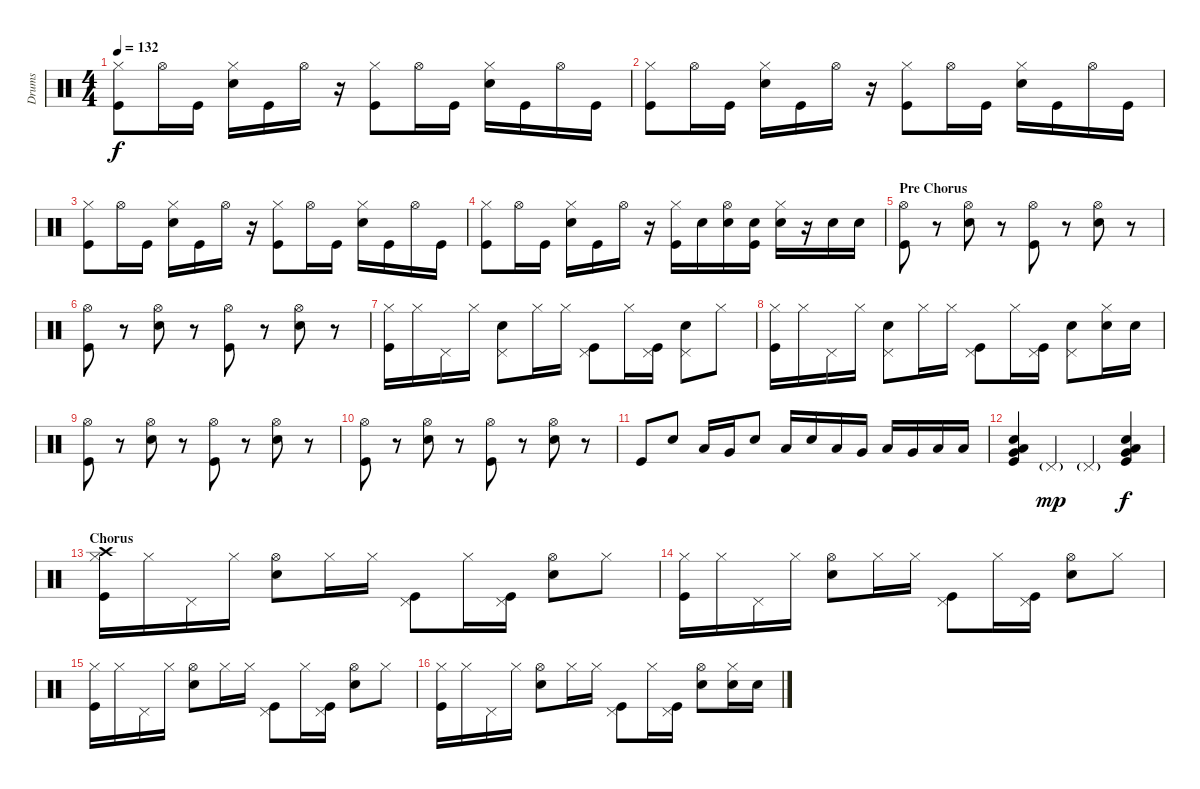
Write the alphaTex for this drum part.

\track ("Drums" "Drums") {instrument percussion}
\staff {score}
\articulation defaults
\ts (4 4)
\tempo 132
\clef neutral
\ks c
("Hi-Hat (closed)" "Kick (hit)").8{dy f} "Hi-Hat (open)".16 "Kick (hit)".16 ("Hi-Hat (closed)" "Snare (hit) 2").16 "Kick (hit)".16 "Hi-Hat (open)".16 r.16 ("Hi-Hat (closed)" "Kick (hit)").8 "Hi-Hat (open)".16 "Kick (hit)".16 ("Hi-Hat (closed)" "Snare (hit) 2").16 "Kick (hit)".16 "Hi-Hat (open)".16 "Kick (hit)".16 |
("Hi-Hat (closed)" "Kick (hit)").8 "Hi-Hat (open)".16 "Kick (hit)".16 ("Hi-Hat (closed)" "Snare (hit) 2").16 "Kick (hit)".16 "Hi-Hat (open)".16 r.16 ("Hi-Hat (closed)" "Kick (hit)").8 "Hi-Hat (open)".16 "Kick (hit)".16 ("Hi-Hat (closed)" "Snare (hit) 2").16 "Kick (hit)".16 "Hi-Hat (open)".16 "Kick (hit)".16 |
("Hi-Hat (closed)" "Kick (hit)").8 "Hi-Hat (open)".16 "Kick (hit)".16 ("Hi-Hat (closed)" "Snare (hit) 2").16 "Kick (hit)".16 "Hi-Hat (open)".16 r.16 ("Hi-Hat (closed)" "Kick (hit)").8 "Hi-Hat (open)".16 "Kick (hit)".16 ("Hi-Hat (closed)" "Snare (hit) 2").16 "Kick (hit)".16 "Hi-Hat (open)".16 "Kick (hit)".16 |
("Hi-Hat (closed)" "Kick (hit)").8 "Hi-Hat (open)".16 "Kick (hit)".16 ("Hi-Hat (closed)" "Snare (hit) 2").16 "Kick (hit)".16 "Hi-Hat (open)".16 r.16 ("Hi-Hat (closed)" "Kick (hit)").16 "Snare (hit) 2".16 ("Hi-Hat (open)" "Snare (hit) 2").16 ("Snare (hit) 2" "Kick (hit)").16 ("Hi-Hat (closed)" "Snare (hit) 2").16 r.16 "Snare (hit) 2".16 "Snare (hit) 2".16 |
\section ("" "Pre Chorus")
("Hi-Hat (open)" "Kick (hit)").8 r.8 ("Hi-Hat (open)" "Snare (hit) 2").8 r.8 ("Hi-Hat (open)" "Kick (hit)").8 r.8 ("Hi-Hat (open)" "Snare (hit) 2").8 r.8 |
("Hi-Hat (open)" "Kick (hit)").8 r.8 ("Hi-Hat (open)" "Snare (hit) 2").8 r.8 ("Hi-Hat (open)" "Kick (hit)").8 r.8 ("Hi-Hat (open)" "Snare (hit) 2").8 r.8 |
("Hi-Hat (closed)" "Kick (hit)").16 "Hi-Hat (closed)".16 "Pedal Hi-Hat (hit)".16 "Hi-Hat (closed)".16 ("Pedal Hi-Hat (hit)" "Snare (hit) 2").8 "Hi-Hat (closed)".16 "Hi-Hat (closed)".16 ("Pedal Hi-Hat (hit)" "Kick (hit)").8 "Hi-Hat (closed)".16 ("Pedal Hi-Hat (hit)" "Kick (hit)").16 ("Pedal Hi-Hat (hit)" "Snare (hit) 2").8 "Hi-Hat (closed)".8 |
("Hi-Hat (closed)" "Kick (hit)").16 "Hi-Hat (closed)".16 "Pedal Hi-Hat (hit)".16 "Hi-Hat (closed)".16 ("Pedal Hi-Hat (hit)" "Snare (hit) 2").8 "Hi-Hat (closed)".16 "Hi-Hat (closed)".16 ("Pedal Hi-Hat (hit)" "Kick (hit)").8 "Hi-Hat (closed)".16 ("Pedal Hi-Hat (hit)" "Kick (hit)").16 ("Pedal Hi-Hat (hit)" "Snare (hit) 2").8 ("Hi-Hat (closed)" "Snare (hit) 2").16 "Snare (hit) 2".16 |
("Hi-Hat (open)" "Kick (hit)").8 r.8 ("Hi-Hat (open)" "Snare (hit) 2").8 r.8 ("Hi-Hat (open)" "Kick (hit)").8 r.8 ("Hi-Hat (open)" "Snare (hit) 2").8 r.8 |
("Hi-Hat (open)" "Kick (hit)").8 r.8 ("Hi-Hat (open)" "Snare (hit) 2").8 r.8 ("Hi-Hat (open)" "Kick (hit)").8 r.8 ("Hi-Hat (open)" "Snare (hit) 2").8 r.8 |
"Kick (hit)".8 "Snare (hit) 2".8 "Low Tom (hit)".16 "Very Low Tom (hit)".16 "Snare (hit) 2".8 "Low Tom (hit)".16 "Snare (hit) 2".16 "Low Tom (hit)".16 "Very Low Tom (hit)".16 "Low Floor Tom (hit)".16 "Very Low Tom (hit)".16 "Low Tom (hit)".16 "Low Floor Tom (hit)".16 |
("Very Low Tom (hit)" "Low Tom (hit)" "Snare (hit) 2" "Kick (hit)").4 "Pedal Hi-Hat (hit)"{g}.4{dy mp} "Pedal Hi-Hat (hit)"{g}.4 ("Very Low Tom (hit)" "Low Tom (hit)" "Snare (hit) 2" "Kick (hit)").4{dy f} |
\section ("" "Chorus")
("Hi-Hat (closed)" "Crash high (hit)" "Kick (hit)").16 "Hi-Hat (closed)".16 "Pedal Hi-Hat (hit)".16 "Hi-Hat (closed)".16 ("Hi-Hat (open)" "Snare (hit) 2").8 "Hi-Hat (closed)".16 "Hi-Hat (closed)".16 ("Pedal Hi-Hat (hit)" "Kick (hit)").8 "Hi-Hat (closed)".16 ("Pedal Hi-Hat (hit)" "Kick (hit)").16 ("Hi-Hat (open)" "Snare (hit) 2").8 "Hi-Hat (closed)".8 |
("Hi-Hat (closed)" "Kick (hit)").16 "Hi-Hat (closed)".16 "Pedal Hi-Hat (hit)".16 "Hi-Hat (closed)".16 ("Hi-Hat (open)" "Snare (hit) 2").8 "Hi-Hat (closed)".16 "Hi-Hat (closed)".16 ("Pedal Hi-Hat (hit)" "Kick (hit)").8 "Hi-Hat (closed)".16 ("Pedal Hi-Hat (hit)" "Kick (hit)").16 ("Hi-Hat (open)" "Snare (hit) 2").8 "Hi-Hat (closed)".8 |
("Hi-Hat (closed)" "Kick (hit)").16 "Hi-Hat (closed)".16 "Pedal Hi-Hat (hit)".16 "Hi-Hat (closed)".16 ("Hi-Hat (open)" "Snare (hit) 2").8 "Hi-Hat (closed)".16 "Hi-Hat (closed)".16 ("Pedal Hi-Hat (hit)" "Kick (hit)").8 "Hi-Hat (closed)".16 ("Pedal Hi-Hat (hit)" "Kick (hit)").16 ("Hi-Hat (open)" "Snare (hit) 2").8 "Hi-Hat (closed)".8 |
("Hi-Hat (closed)" "Kick (hit)").16 "Hi-Hat (closed)".16 "Pedal Hi-Hat (hit)".16 "Hi-Hat (closed)".16 ("Hi-Hat (open)" "Snare (hit) 2").8 "Hi-Hat (closed)".16 "Hi-Hat (closed)".16 ("Pedal Hi-Hat (hit)" "Kick (hit)").8 "Hi-Hat (closed)".16 ("Pedal Hi-Hat (hit)" "Kick (hit)").16 ("Hi-Hat (open)" "Snare (hit) 2").8 ("Hi-Hat (closed)" "Snare (hit) 2").16 "Snare (hit) 2".16
